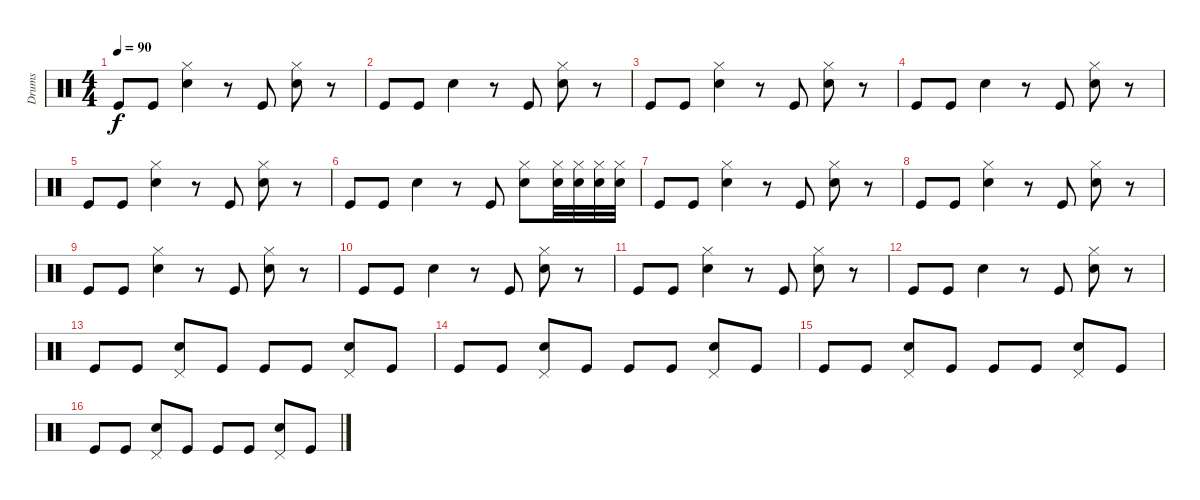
\track ("Drums" "Drums") {instrument percussion}
\staff {score}
\articulation defaults
\ts (4 4)
\tempo 90
\clef neutral
\ks c "Kick (hit)".8{dy f} "Kick (hit)".8
("Snare (hit) 2" "Hi-Hat (closed)").4 r.8 "Kick (hit)".8 ("Snare (hit) 2" "Hi-Hat (closed)").8 r.8 |
"Kick (hit)".8 "Kick (hit)".8 "Snare (hit) 2".4 r.8 "Kick (hit)".8 ("Snare (hit) 2" "Hi-Hat (closed)").8 r.8 |
"Kick (hit)".8 "Kick (hit)".8 ("Snare (hit) 2" "Hi-Hat (closed)").4 r.8 "Kick (hit)".8 ("Snare (hit) 2" "Hi-Hat (closed)").8 r.8 |
"Kick (hit)".8 "Kick (hit)".8 "Snare (hit) 2".4 r.8 "Kick (hit)".8 ("Snare (hit) 2" "Hi-Hat (closed)").8 r.8 |
"Kick (hit)".8 "Kick (hit)".8 ("Snare (hit) 2" "Hi-Hat (closed)").4 r.8 "Kick (hit)".8 ("Snare (hit) 2" "Hi-Hat (closed)").8 r.8 |
"Kick (hit)".8 "Kick (hit)".8 "Snare (hit) 2".4 r.8 "Kick (hit)".8 ("Snare (hit) 2" "Hi-Hat (closed)").8 ("Hi-Hat (closed)" "Snare (hit) 2").32 ("Hi-Hat (closed)" "Snare (hit) 2").32 ("Hi-Hat (closed)" "Snare (hit) 2").32 ("Hi-Hat (closed)" "Snare (hit) 2").32 |
"Kick (hit)".8 "Kick (hit)".8 ("Snare (hit) 2" "Hi-Hat (closed)").4 r.8 "Kick (hit)".8 ("Snare (hit) 2" "Hi-Hat (closed)").8 r.8 |
"Kick (hit)".8 "Kick (hit)".8 ("Snare (hit) 2" "Hi-Hat (closed)").4 r.8 "Kick (hit)".8 ("Snare (hit) 2" "Hi-Hat (closed)").8 r.8 |
"Kick (hit)".8 "Kick (hit)".8 ("Snare (hit) 2" "Hi-Hat (closed)").4 r.8 "Kick (hit)".8 ("Snare (hit) 2" "Hi-Hat (closed)").8 r.8 |
"Kick (hit)".8 "Kick (hit)".8 "Snare (hit) 2".4 r.8 "Kick (hit)".8 ("Snare (hit) 2" "Hi-Hat (closed)").8 r.8 |
"Kick (hit)".8 "Kick (hit)".8 ("Snare (hit) 2" "Hi-Hat (closed)").4 r.8 "Kick (hit)".8 ("Snare (hit) 2" "Hi-Hat (closed)").8 r.8 |
"Kick (hit)".8 "Kick (hit)".8 "Snare (hit) 2".4 r.8 "Kick (hit)".8 ("Snare (hit) 2" "Hi-Hat (closed)").8 r.8 |
"Kick (hit)".8 "Kick (hit)".8 ("Snare (hit) 2" "Pedal Hi-Hat (hit)").8 "Kick (hit)".8 "Kick (hit)".8 "Kick (hit)".8 ("Snare (hit) 2" "Pedal Hi-Hat (hit)").8 "Kick (hit)".8 |
"Kick (hit)".8 "Kick (hit)".8 ("Snare (hit) 2" "Pedal Hi-Hat (hit)").8 "Kick (hit)".8 "Kick (hit)".8 "Kick (hit)".8 ("Snare (hit) 2" "Pedal Hi-Hat (hit)").8 "Kick (hit)".8 |
"Kick (hit)".8 "Kick (hit)".8 ("Snare (hit) 2" "Pedal Hi-Hat (hit)").8 "Kick (hit)".8 "Kick (hit)".8 "Kick (hit)".8 ("Snare (hit) 2" "Pedal Hi-Hat (hit)").8 "Kick (hit)".8 |
"Kick (hit)".8 "Kick (hit)".8 ("Snare (hit) 2" "Pedal Hi-Hat (hit)").8 "Kick (hit)".8 "Kick (hit)".8 "Kick (hit)".8 ("Snare (hit) 2" "Pedal Hi-Hat (hit)").8 "Kick (hit)".8
